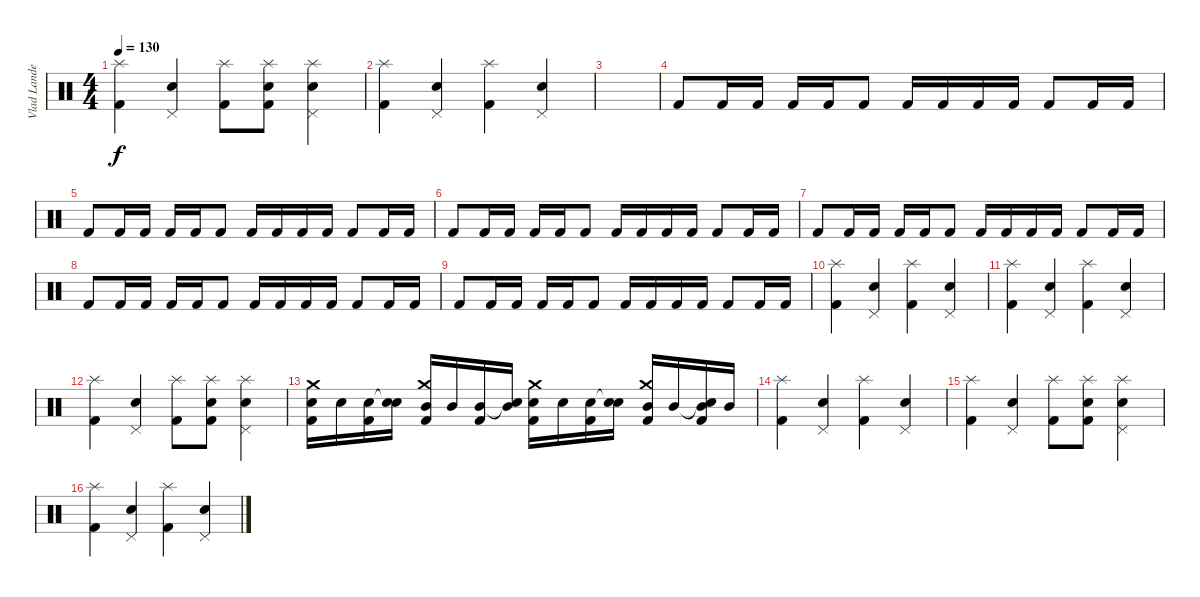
\track ("Vlad Landeros" "Vlad Lande") {instrument percussion}
\staff {score}
\articulation defaults
\ts (4 4)
\tempo 130
\clef neutral
\ks c
("Splash (hit)" "Kick (hit) 2").4{dy f} ("Pedal Hi-Hat (hit)" "Snare (hit) 2").4 ("Splash (hit)" "Kick (hit) 2").8 ("Splash (hit)" "Snare (hit) 2" "Kick (hit) 2").8 ("Splash (hit)" "Pedal Hi-Hat (hit)" "Snare (hit) 2").4 |
("Splash (hit)" "Kick (hit) 2").4 ("Pedal Hi-Hat (hit)" "Snare (hit) 2").4 ("Splash (hit)" "Kick (hit) 2").4 ("Pedal Hi-Hat (hit)" "Snare (hit) 2").4 |
|
"Kick (hit) 2".8 "Kick (hit) 2".16 "Kick (hit) 2".16 "Kick (hit) 2".16 "Kick (hit) 2".16 "Kick (hit) 2".8 "Kick (hit) 2".16 "Kick (hit) 2".16 "Kick (hit) 2".16 "Kick (hit) 2".16 "Kick (hit) 2".8 "Kick (hit) 2".16 "Kick (hit) 2".16 |
"Kick (hit) 2".8 "Kick (hit) 2".16 "Kick (hit) 2".16 "Kick (hit) 2".16 "Kick (hit) 2".16 "Kick (hit) 2".8 "Kick (hit) 2".16 "Kick (hit) 2".16 "Kick (hit) 2".16 "Kick (hit) 2".16 "Kick (hit) 2".8 "Kick (hit) 2".16 "Kick (hit) 2".16 |
"Kick (hit) 2".8 "Kick (hit) 2".16 "Kick (hit) 2".16 "Kick (hit) 2".16 "Kick (hit) 2".16 "Kick (hit) 2".8 "Kick (hit) 2".16 "Kick (hit) 2".16 "Kick (hit) 2".16 "Kick (hit) 2".16 "Kick (hit) 2".8 "Kick (hit) 2".16 "Kick (hit) 2".16 |
"Kick (hit) 2".8 "Kick (hit) 2".16 "Kick (hit) 2".16 "Kick (hit) 2".16 "Kick (hit) 2".16 "Kick (hit) 2".8 "Kick (hit) 2".16 "Kick (hit) 2".16 "Kick (hit) 2".16 "Kick (hit) 2".16 "Kick (hit) 2".8 "Kick (hit) 2".16 "Kick (hit) 2".16 |
"Kick (hit) 2".8 "Kick (hit) 2".16 "Kick (hit) 2".16 "Kick (hit) 2".16 "Kick (hit) 2".16 "Kick (hit) 2".8 "Kick (hit) 2".16 "Kick (hit) 2".16 "Kick (hit) 2".16 "Kick (hit) 2".16 "Kick (hit) 2".8 "Kick (hit) 2".16 "Kick (hit) 2".16 |
"Kick (hit) 2".8 "Kick (hit) 2".16 "Kick (hit) 2".16 "Kick (hit) 2".16 "Kick (hit) 2".16 "Kick (hit) 2".8 "Kick (hit) 2".16 "Kick (hit) 2".16 "Kick (hit) 2".16 "Kick (hit) 2".16 "Kick (hit) 2".8 "Kick (hit) 2".16 "Kick (hit) 2".16 |
("Splash (hit)" "Kick (hit) 2").4 ("Pedal Hi-Hat (hit)" "Snare (hit) 2").4 ("Splash (hit)" "Kick (hit) 2").4 ("Pedal Hi-Hat (hit)" "Snare (hit) 2").4 |
("Splash (hit)" "Kick (hit) 2").4 ("Pedal Hi-Hat (hit)" "Snare (hit) 2").4 ("Splash (hit)" "Kick (hit) 2").4 ("Pedal Hi-Hat (hit)" "Snare (hit) 2").4 |
("Splash (hit)" "Kick (hit) 2").4 ("Pedal Hi-Hat (hit)" "Snare (hit) 2").4 ("Splash (hit)" "Kick (hit) 2").8 ("Splash (hit)" "Snare (hit) 2" "Kick (hit) 2").8 ("Splash (hit)" "Pedal Hi-Hat (hit)" "Snare (hit) 2").4 |
("Crash medium (hit)" "Snare (hit) 2" "Kick (hit) 2").16 "Snare (hit) 2".16 ("Snare (hit) 2" "Kick (hit) 2").16 ("Snare (hit)"{t} "Snare (hit) 2").16 ("Crash medium (hit)" "Mid Tom (hit)" "Kick (hit) 2").16 "Mid Tom (hit)".16 ("Mid Tom (hit)" "Kick (hit) 2").16 ("Snare (hit)"{t} "Mid Tom (hit)").16 ("Crash medium (hit)" "Snare (hit) 2" "Kick (hit) 2").16 "Snare (hit) 2".16 ("Snare (hit) 2" "Kick (hit) 2").16 ("Snare (hit)"{t} "Snare (hit) 2").16 ("Crash medium (hit)" "Mid Tom (hit)" "Kick (hit) 2").16 "Mid Tom (hit)".16 ("Snare (hit)"{t} "Mid Tom (hit)" "Kick (hit) 2").16 "Mid Tom (hit)".16 |
("Splash (hit)" "Kick (hit) 2").4 ("Pedal Hi-Hat (hit)" "Snare (hit) 2").4 ("Splash (hit)" "Kick (hit) 2").4 ("Pedal Hi-Hat (hit)" "Snare (hit) 2").4 |
("Splash (hit)" "Kick (hit) 2").4 ("Pedal Hi-Hat (hit)" "Snare (hit) 2").4 ("Splash (hit)" "Kick (hit) 2").8 ("Splash (hit)" "Snare (hit) 2" "Kick (hit) 2").8 ("Splash (hit)" "Pedal Hi-Hat (hit)" "Snare (hit) 2").4 |
("Splash (hit)" "Kick (hit) 2").4 ("Pedal Hi-Hat (hit)" "Snare (hit) 2").4 ("Splash (hit)" "Kick (hit) 2").4 ("Pedal Hi-Hat (hit)" "Snare (hit) 2").4
